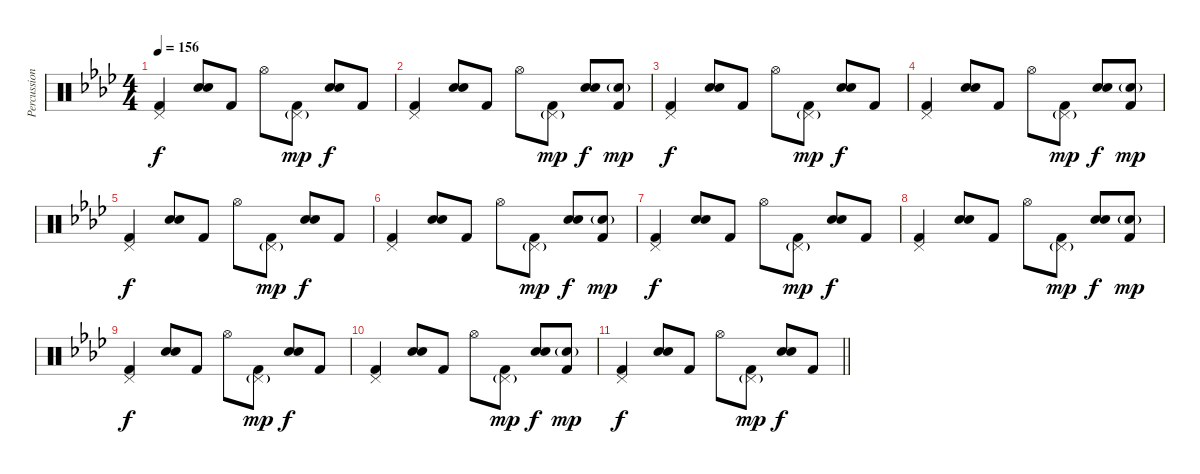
\track ("Percussion" "Percussion") {instrument percussion}
\staff {score}
\articulation defaults
\ts (4 4)
\tempo 156
\clef neutral
\ks fminor
("Pedal Hi-Hat (hit)" "Kick (hit) 2").4{dy f} ("Hand Clap (hit)" "Electric Snare (hit)").8 "Kick (hit) 2".8 "Hi-Hat (open)".8 ("Pedal Hi-Hat (hit)"{g} "Kick (hit) 2").8{dy mp} ("Hand Clap (hit)" "Electric Snare (hit)").8{dy f} "Kick (hit) 2".8 |
("Pedal Hi-Hat (hit)" "Kick (hit) 2").4 ("Hand Clap (hit)" "Electric Snare (hit)").8 "Kick (hit) 2".8 "Hi-Hat (open)".8 ("Pedal Hi-Hat (hit)"{g} "Kick (hit) 2").8{dy mp} ("Hand Clap (hit)" "Electric Snare (hit)").8{dy f} ("Hand Clap (hit)"{g} "Kick (hit) 2").8{dy mp} |
("Pedal Hi-Hat (hit)" "Kick (hit) 2").4{dy f} ("Hand Clap (hit)" "Electric Snare (hit)").8 "Kick (hit) 2".8 "Hi-Hat (open)".8 ("Pedal Hi-Hat (hit)"{g} "Kick (hit) 2").8{dy mp} ("Hand Clap (hit)" "Electric Snare (hit)").8{dy f} "Kick (hit) 2".8 |
("Pedal Hi-Hat (hit)" "Kick (hit) 2").4 ("Hand Clap (hit)" "Electric Snare (hit)").8 "Kick (hit) 2".8 "Hi-Hat (open)".8 ("Pedal Hi-Hat (hit)"{g} "Kick (hit) 2").8{dy mp} ("Hand Clap (hit)" "Electric Snare (hit)").8{dy f} ("Hand Clap (hit)"{g} "Kick (hit) 2").8{dy mp} |
("Pedal Hi-Hat (hit)" "Kick (hit) 2").4{dy f} ("Hand Clap (hit)" "Electric Snare (hit)").8 "Kick (hit) 2".8 "Hi-Hat (open)".8 ("Pedal Hi-Hat (hit)"{g} "Kick (hit) 2").8{dy mp} ("Hand Clap (hit)" "Electric Snare (hit)").8{dy f} "Kick (hit) 2".8 |
("Pedal Hi-Hat (hit)" "Kick (hit) 2").4 ("Hand Clap (hit)" "Electric Snare (hit)").8 "Kick (hit) 2".8 "Hi-Hat (open)".8 ("Pedal Hi-Hat (hit)"{g} "Kick (hit) 2").8{dy mp} ("Hand Clap (hit)" "Electric Snare (hit)").8{dy f} ("Hand Clap (hit)"{g} "Kick (hit) 2").8{dy mp} |
("Pedal Hi-Hat (hit)" "Kick (hit) 2").4{dy f} ("Hand Clap (hit)" "Electric Snare (hit)").8 "Kick (hit) 2".8 "Hi-Hat (open)".8 ("Pedal Hi-Hat (hit)"{g} "Kick (hit) 2").8{dy mp} ("Hand Clap (hit)" "Electric Snare (hit)").8{dy f} "Kick (hit) 2".8 |
("Pedal Hi-Hat (hit)" "Kick (hit) 2").4 ("Hand Clap (hit)" "Electric Snare (hit)").8 "Kick (hit) 2".8 "Hi-Hat (open)".8 ("Pedal Hi-Hat (hit)"{g} "Kick (hit) 2").8{dy mp} ("Hand Clap (hit)" "Electric Snare (hit)").8{dy f} ("Hand Clap (hit)"{g} "Kick (hit) 2").8{dy mp} |
("Pedal Hi-Hat (hit)" "Kick (hit) 2").4{dy f} ("Hand Clap (hit)" "Electric Snare (hit)").8 "Kick (hit) 2".8 "Hi-Hat (open)".8 ("Pedal Hi-Hat (hit)"{g} "Kick (hit) 2").8{dy mp} ("Hand Clap (hit)" "Electric Snare (hit)").8{dy f} "Kick (hit) 2".8 |
("Pedal Hi-Hat (hit)" "Kick (hit) 2").4 ("Hand Clap (hit)" "Electric Snare (hit)").8 "Kick (hit) 2".8 "Hi-Hat (open)".8 ("Pedal Hi-Hat (hit)"{g} "Kick (hit) 2").8{dy mp} ("Hand Clap (hit)" "Electric Snare (hit)").8{dy f} ("Hand Clap (hit)"{g} "Kick (hit) 2").8{dy mp} |
\barLineRight lightlight
("Pedal Hi-Hat (hit)" "Kick (hit) 2").4{dy f} ("Hand Clap (hit)" "Electric Snare (hit)").8 "Kick (hit) 2".8 "Hi-Hat (open)".8 ("Pedal Hi-Hat (hit)"{g} "Kick (hit) 2").8{dy mp} ("Hand Clap (hit)" "Electric Snare (hit)").8{dy f} "Kick (hit) 2".8
